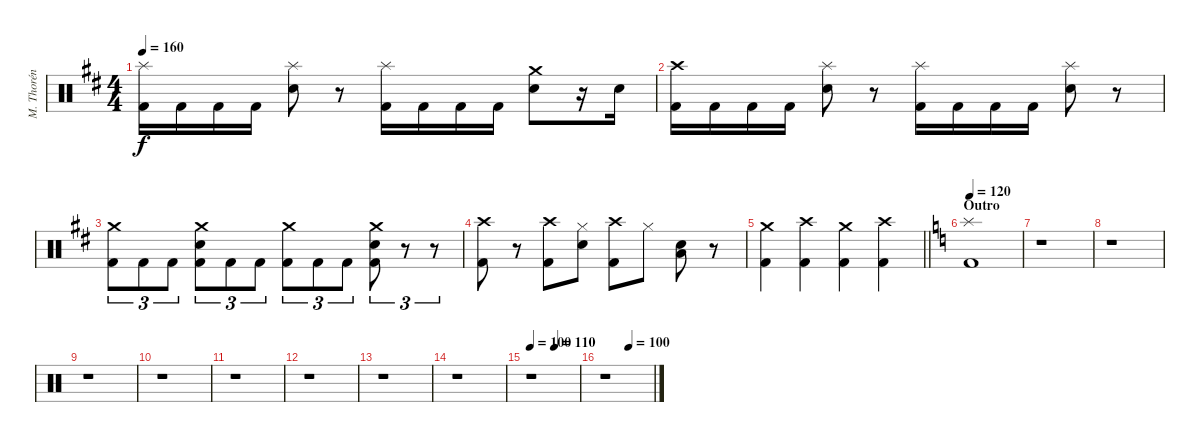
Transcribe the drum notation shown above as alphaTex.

\track ("M. Thorén (Drums)" "M. Thorén ") {instrument percussion}
\staff {score}
\articulation defaults
\ts (4 4)
\tempo 160
\clef neutral
\ks bminor
("Splash (hit)" "Kick (hit) 2").16{dy f} "Kick (hit) 2".16 "Kick (hit) 2".16 "Kick (hit) 2".16 ("Splash (hit)" "Electric Snare (hit)").8 r.8 ("Splash (hit)" "Kick (hit) 2").16 "Kick (hit) 2".16 "Kick (hit) 2".16 "Kick (hit) 2".16 ("Crash medium (hit)" "Electric Snare (hit)").8 r.16 "Electric Snare (hit)".16 |
("Crash high (hit)" "Kick (hit) 2").16 "Kick (hit) 2".16 "Kick (hit) 2".16 "Kick (hit) 2".16 ("Splash (hit)" "Electric Snare (hit)").8 r.8 ("Splash (hit)" "Kick (hit) 2").16 "Kick (hit) 2".16 "Kick (hit) 2".16 "Kick (hit) 2".16 ("Splash (hit)" "Electric Snare (hit)").8 r.8 |
("Crash medium (hit)" "Kick (hit) 2").8{tu (3 2)} "Kick (hit) 2".8{tu (3 2)} "Kick (hit) 2".8{tu (3 2)} ("Crash medium (hit)" "Electric Snare (hit)" "Kick (hit) 2").8{tu (3 2)} "Kick (hit) 2".8{tu (3 2)} "Kick (hit) 2".8{tu (3 2)} ("Crash medium (hit)" "Kick (hit) 2").8{tu (3 2)} "Kick (hit) 2".8{tu (3 2)} "Kick (hit) 2".8{tu (3 2)} ("Crash medium (hit)" "Electric Snare (hit)" "Kick (hit) 2").8{tu (3 2)} r.8{tu (3 2)} r.8{tu (3 2)} |
("Crash high (hit)" "Kick (hit) 2").8 r.8 ("Crash high (hit)" "Kick (hit) 2").8 ("Hi-Hat (closed)" "Electric Snare (hit)").8 ("Crash high (hit)" "Kick (hit) 2").8 "Hi-Hat (closed)".8 ("Electric Snare (hit)" "Low Floor Tom (hit)").8 r.8 |
\barLineRight lightlight
("Crash medium (hit)" "Kick (hit) 2").4 ("Crash high (hit)" "Kick (hit) 2").4 ("Crash medium (hit)" "Kick (hit) 2").4 ("Crash high (hit)" "Kick (hit) 2").4 |
\section ("" "Outro")
\tempo 120
\ks aminor
("Splash (hit)" "Kick (hit) 2").1 |
r.1 |
r.1 |
r.1 |
r.1 |
r.1 |
r.1 |
r.1 |
r.1 |
\tempo 100
\tempo (110 0.5)
r.1 |
\tempo (100 0.5)
r.1
